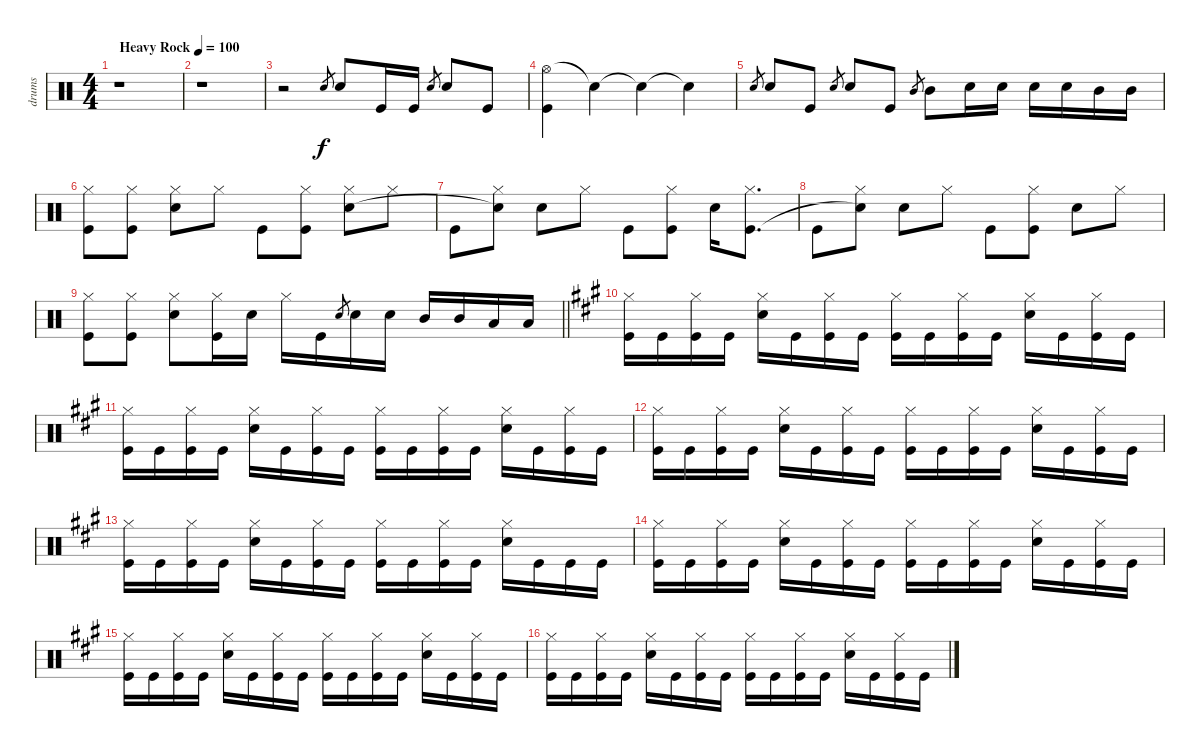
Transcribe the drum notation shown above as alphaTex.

\track ("drums" "drums") {instrument percussion}
\staff {score}
\articulation defaults
\ts (4 4)
\tempo (100 "Heavy Rock")
\clef neutral
\ks c
r.1{dy f} |
r.1 |
r.2 "Snare (hit) 2".8{gr} "Snare (hit) 2".8 "Kick (hit)".16 "Kick (hit)".16 "Snare (hit) 2".8{gr} "Snare (hit) 2".8 "Kick (hit)".8 |
("Hi-Hat (open)" "Kick (hit)").4 "Snare (hit)"{t}.4 "Snare (hit)"{t}.4 "Snare (hit)"{t}.4 |
"Snare (hit) 2".8{gr} "Snare (hit) 2".8 "Kick (hit)".8 "Snare (hit) 2".8{gr} "Snare (hit) 2".8 "Kick (hit)".8 "Mid Tom (hit)".8{gr} "Mid Tom (hit)".8 "Snare (hit) 2".16 "Snare (hit) 2".16 "Snare (hit) 2".16 "Snare (hit) 2".16 "Mid Tom (hit)".16 "Mid Tom (hit)".16 |
("Hi-Hat (closed)" "Kick (hit)").8 ("Hi-Hat (closed)" "Kick (hit)").8 ("Hi-Hat (closed)" "Snare (hit) 2").8 "Hi-Hat (closed)".8 "Kick (hit)".8 ("Hi-Hat (closed)" "Kick (hit)").8 ("Hi-Hat (closed)" "Snare (hit) 2").8 "Hi-Hat (closed)".8 |
"Kick (hit)".8 ("Hi-Hat (closed)" "Snare (hit)"{t}).8 "Snare (hit) 2".8 "Hi-Hat (closed)".8 "Kick (hit)".8 ("Hi-Hat (closed)" "Kick (hit)").8 "Snare (hit) 2".16 ("Hi-Hat (closed)" "Kick (hit)").8{d} |
"Kick (hit)".8 ("Hi-Hat (closed)" "Snare (hit)"{t}).8 "Snare (hit) 2".8 "Hi-Hat (closed)".8 "Kick (hit)".8 ("Hi-Hat (closed)" "Kick (hit)").8 "Snare (hit) 2".8 "Hi-Hat (closed)".8 |
\barLineRight lightlight
("Hi-Hat (closed)" "Kick (hit)").8 ("Hi-Hat (closed)" "Kick (hit)").8 ("Hi-Hat (closed)" "Snare (hit) 2").8 ("Hi-Hat (closed)" "Kick (hit)").16 "Snare (hit) 2".16 "Hi-Hat (closed)".16 "Kick (hit)".16 "Snare (hit) 2".8{gr} "Snare (hit) 2".16 "Snare (hit) 2".16 "Mid Tom (hit)".16 "Mid Tom (hit)".16 "Low Tom (hit)".16 "Low Tom (hit)".16 |
\ks f#minor
("Hi-Hat (closed)" "Kick (hit)").16 "Kick (hit)".16 ("Hi-Hat (closed)" "Kick (hit)").16 "Kick (hit)".16 ("Hi-Hat (closed)" "Snare (hit) 2").16 "Kick (hit)".16 ("Hi-Hat (closed)" "Kick (hit)").16 "Kick (hit)".16 ("Hi-Hat (closed)" "Kick (hit)").16 "Kick (hit)".16 ("Hi-Hat (closed)" "Kick (hit)").16 "Kick (hit)".16 ("Hi-Hat (closed)" "Snare (hit) 2").16 "Kick (hit)".16 ("Hi-Hat (closed)" "Kick (hit)").16 "Kick (hit)".16 |
("Hi-Hat (closed)" "Kick (hit)").16 "Kick (hit)".16 ("Hi-Hat (closed)" "Kick (hit)").16 "Kick (hit)".16 ("Hi-Hat (closed)" "Snare (hit) 2").16 "Kick (hit)".16 ("Hi-Hat (closed)" "Kick (hit)").16 "Kick (hit)".16 ("Hi-Hat (closed)" "Kick (hit)").16 "Kick (hit)".16 ("Hi-Hat (closed)" "Kick (hit)").16 "Kick (hit)".16 ("Hi-Hat (closed)" "Snare (hit) 2").16 "Kick (hit)".16 ("Hi-Hat (closed)" "Kick (hit)").16 "Kick (hit)".16 |
("Hi-Hat (closed)" "Kick (hit)").16 "Kick (hit)".16 ("Hi-Hat (closed)" "Kick (hit)").16 "Kick (hit)".16 ("Hi-Hat (closed)" "Snare (hit) 2").16 "Kick (hit)".16 ("Hi-Hat (closed)" "Kick (hit)").16 "Kick (hit)".16 ("Hi-Hat (closed)" "Kick (hit)").16 "Kick (hit)".16 ("Hi-Hat (closed)" "Kick (hit)").16 "Kick (hit)".16 ("Hi-Hat (closed)" "Snare (hit) 2").16 "Kick (hit)".16 ("Hi-Hat (closed)" "Kick (hit)").16 "Kick (hit)".16 |
("Hi-Hat (closed)" "Kick (hit)").16 "Kick (hit)".16 ("Hi-Hat (closed)" "Kick (hit)").16 "Kick (hit)".16 ("Hi-Hat (closed)" "Snare (hit) 2").16 "Kick (hit)".16 ("Hi-Hat (closed)" "Kick (hit)").16 "Kick (hit)".16 ("Hi-Hat (closed)" "Kick (hit)").16 "Kick (hit)".16 ("Hi-Hat (closed)" "Kick (hit)").16 "Kick (hit)".16 ("Hi-Hat (closed)" "Snare (hit) 2").16 "Kick (hit)".16 "Kick (hit)".16 "Kick (hit)".16 |
("Hi-Hat (closed)" "Kick (hit)").16 "Kick (hit)".16 ("Hi-Hat (closed)" "Kick (hit)").16 "Kick (hit)".16 ("Hi-Hat (closed)" "Snare (hit) 2").16 "Kick (hit)".16 ("Hi-Hat (closed)" "Kick (hit)").16 "Kick (hit)".16 ("Hi-Hat (closed)" "Kick (hit)").16 "Kick (hit)".16 ("Hi-Hat (closed)" "Kick (hit)").16 "Kick (hit)".16 ("Hi-Hat (closed)" "Snare (hit) 2").16 "Kick (hit)".16 ("Hi-Hat (closed)" "Kick (hit)").16 "Kick (hit)".16 |
("Hi-Hat (closed)" "Kick (hit)").16 "Kick (hit)".16 ("Hi-Hat (closed)" "Kick (hit)").16 "Kick (hit)".16 ("Hi-Hat (closed)" "Snare (hit) 2").16 "Kick (hit)".16 ("Hi-Hat (closed)" "Kick (hit)").16 "Kick (hit)".16 ("Hi-Hat (closed)" "Kick (hit)").16 "Kick (hit)".16 ("Hi-Hat (closed)" "Kick (hit)").16 "Kick (hit)".16 ("Hi-Hat (closed)" "Snare (hit) 2").16 "Kick (hit)".16 ("Hi-Hat (closed)" "Kick (hit)").16 "Kick (hit)".16 |
("Hi-Hat (closed)" "Kick (hit)").16 "Kick (hit)".16 ("Hi-Hat (closed)" "Kick (hit)").16 "Kick (hit)".16 ("Hi-Hat (closed)" "Snare (hit) 2").16 "Kick (hit)".16 ("Hi-Hat (closed)" "Kick (hit)").16 "Kick (hit)".16 ("Hi-Hat (closed)" "Kick (hit)").16 "Kick (hit)".16 ("Hi-Hat (closed)" "Kick (hit)").16 "Kick (hit)".16 ("Hi-Hat (closed)" "Snare (hit) 2").16 "Kick (hit)".16 ("Hi-Hat (closed)" "Kick (hit)").16 "Kick (hit)".16
